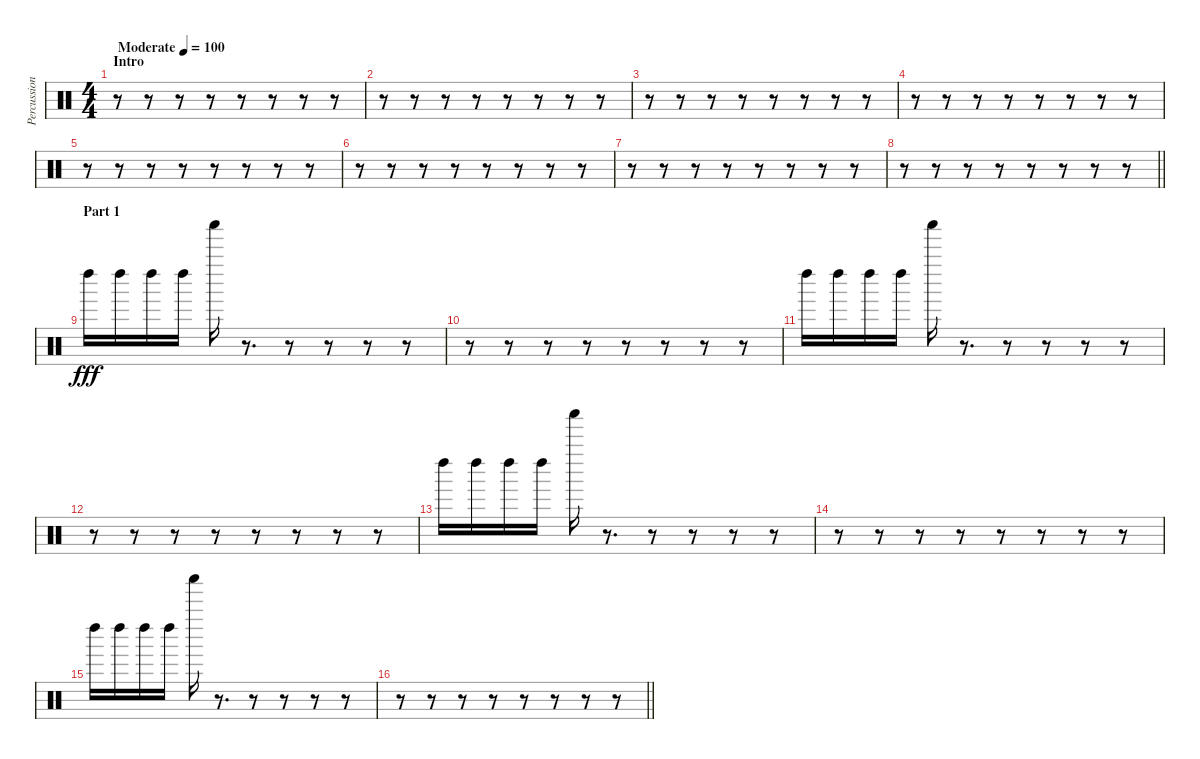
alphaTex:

\track ("Percussion" "Percussion") {instrument percussion}
\staff {score}
\articulation defaults
\ts (4 4)
\section ("" "Intro")
\tempo (100 "Moderate")
\clef neutral
\ks c
r.8{dy fff} r.8 r.8 r.8 r.8 r.8 r.8 r.8 |
r.8 r.8 r.8 r.8 r.8 r.8 r.8 r.8 |
r.8 r.8 r.8 r.8 r.8 r.8 r.8 r.8 |
r.8 r.8 r.8 r.8 r.8 r.8 r.8 r.8 |
r.8 r.8 r.8 r.8 r.8 r.8 r.8 r.8 |
r.8 r.8 r.8 r.8 r.8 r.8 r.8 r.8 |
r.8 r.8 r.8 r.8 r.8 r.8 r.8 r.8 |
\barLineRight lightlight
r.8 r.8 r.8 r.8 r.8 r.8 r.8 r.8 |
\section ("" "Part 1")
"Left Maraca (hit)".16 "Left Maraca (hit)".16 "Left Maraca (hit)".16 "Left Maraca (hit)".16 "Shaker (hit)".16 r.8{d} r.8 r.8 r.8 r.8 |
r.8 r.8 r.8 r.8 r.8 r.8 r.8 r.8 |
"Left Maraca (hit)".16 "Left Maraca (hit)".16 "Left Maraca (hit)".16 "Left Maraca (hit)".16 "Shaker (hit)".16 r.8{d} r.8 r.8 r.8 r.8 |
r.8 r.8 r.8 r.8 r.8 r.8 r.8 r.8 |
"Left Maraca (hit)".16 "Left Maraca (hit)".16 "Left Maraca (hit)".16 "Left Maraca (hit)".16 "Shaker (hit)".16 r.8{d} r.8 r.8 r.8 r.8 |
r.8 r.8 r.8 r.8 r.8 r.8 r.8 r.8 |
"Left Maraca (hit)".16 "Left Maraca (hit)".16 "Left Maraca (hit)".16 "Left Maraca (hit)".16 "Shaker (hit)".16 r.8{d} r.8 r.8 r.8 r.8 |
\barLineRight lightlight
r.8 r.8 r.8 r.8 r.8 r.8 r.8 r.8
